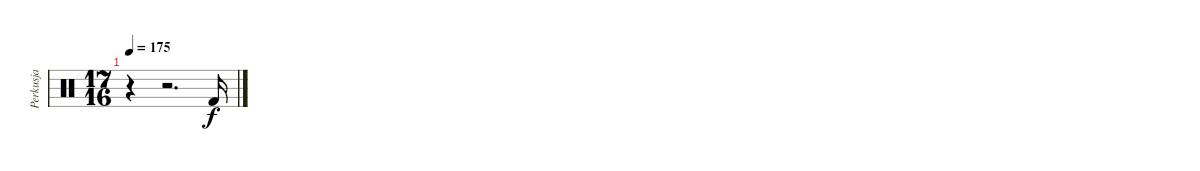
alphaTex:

\track ("Perkusja" "Perkusja") {instrument percussion}
\staff {score}
\articulation defaults
\ts (17 16)
\tempo 175
\clef neutral
\ks c
r.4{dy f} r.2{d} "Kick (hit) 2".16
